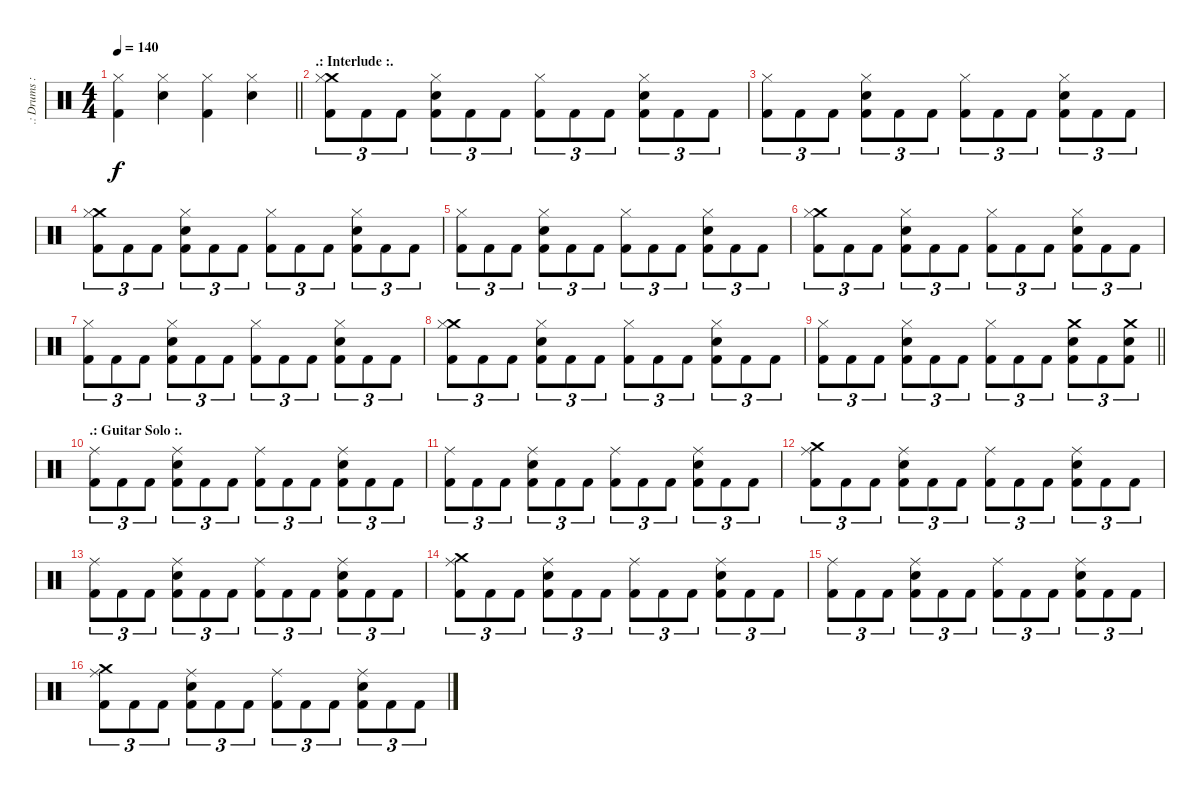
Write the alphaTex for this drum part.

\track (".: Drums :." ".: Drums :") {instrument percussion}
\staff {score}
\articulation defaults
\ts (4 4)
\tempo 140
\clef neutral
\barLineRight lightlight
\ks c
("Hi-Hat (closed)" "Kick (hit) 2").4{dy f} ("Hi-Hat (closed)" "Snare (hit) 2").4 ("Hi-Hat (closed)" "Kick (hit) 2").4 ("Hi-Hat (closed)" "Snare (hit) 2").4 |
\section ("" ".: Interlude :.")
("Crash medium (hit)" "Hi-Hat (closed)" "Kick (hit) 2").8{tu (3 2)} "Kick (hit) 2".8{tu (3 2)} "Kick (hit) 2".8{tu (3 2)} ("Hi-Hat (closed)" "Snare (hit) 2" "Kick (hit) 2").8{tu (3 2)} "Kick (hit) 2".8{tu (3 2)} "Kick (hit) 2".8{tu (3 2)} ("Hi-Hat (closed)" "Kick (hit) 2").8{tu (3 2)} "Kick (hit) 2".8{tu (3 2)} "Kick (hit) 2".8{tu (3 2)} ("Hi-Hat (closed)" "Snare (hit) 2" "Kick (hit) 2").8{tu (3 2)} "Kick (hit) 2".8{tu (3 2)} "Kick (hit) 2".8{tu (3 2)} |
("Hi-Hat (closed)" "Kick (hit) 2").8{tu (3 2)} "Kick (hit) 2".8{tu (3 2)} "Kick (hit) 2".8{tu (3 2)} ("Hi-Hat (closed)" "Snare (hit) 2" "Kick (hit) 2").8{tu (3 2)} "Kick (hit) 2".8{tu (3 2)} "Kick (hit) 2".8{tu (3 2)} ("Hi-Hat (closed)" "Kick (hit) 2").8{tu (3 2)} "Kick (hit) 2".8{tu (3 2)} "Kick (hit) 2".8{tu (3 2)} ("Hi-Hat (closed)" "Snare (hit) 2" "Kick (hit) 2").8{tu (3 2)} "Kick (hit) 2".8{tu (3 2)} "Kick (hit) 2".8{tu (3 2)} |
("Crash medium (hit)" "Hi-Hat (closed)" "Kick (hit) 2").8{tu (3 2)} "Kick (hit) 2".8{tu (3 2)} "Kick (hit) 2".8{tu (3 2)} ("Hi-Hat (closed)" "Snare (hit) 2" "Kick (hit) 2").8{tu (3 2)} "Kick (hit) 2".8{tu (3 2)} "Kick (hit) 2".8{tu (3 2)} ("Hi-Hat (closed)" "Kick (hit) 2").8{tu (3 2)} "Kick (hit) 2".8{tu (3 2)} "Kick (hit) 2".8{tu (3 2)} ("Hi-Hat (closed)" "Snare (hit) 2" "Kick (hit) 2").8{tu (3 2)} "Kick (hit) 2".8{tu (3 2)} "Kick (hit) 2".8{tu (3 2)} |
("Hi-Hat (closed)" "Kick (hit) 2").8{tu (3 2)} "Kick (hit) 2".8{tu (3 2)} "Kick (hit) 2".8{tu (3 2)} ("Hi-Hat (closed)" "Snare (hit) 2" "Kick (hit) 2").8{tu (3 2)} "Kick (hit) 2".8{tu (3 2)} "Kick (hit) 2".8{tu (3 2)} ("Hi-Hat (closed)" "Kick (hit) 2").8{tu (3 2)} "Kick (hit) 2".8{tu (3 2)} "Kick (hit) 2".8{tu (3 2)} ("Hi-Hat (closed)" "Snare (hit) 2" "Kick (hit) 2").8{tu (3 2)} "Kick (hit) 2".8{tu (3 2)} "Kick (hit) 2".8{tu (3 2)} |
("Crash medium (hit)" "Hi-Hat (closed)" "Kick (hit) 2").8{tu (3 2)} "Kick (hit) 2".8{tu (3 2)} "Kick (hit) 2".8{tu (3 2)} ("Hi-Hat (closed)" "Snare (hit) 2" "Kick (hit) 2").8{tu (3 2)} "Kick (hit) 2".8{tu (3 2)} "Kick (hit) 2".8{tu (3 2)} ("Hi-Hat (closed)" "Kick (hit) 2").8{tu (3 2)} "Kick (hit) 2".8{tu (3 2)} "Kick (hit) 2".8{tu (3 2)} ("Hi-Hat (closed)" "Snare (hit) 2" "Kick (hit) 2").8{tu (3 2)} "Kick (hit) 2".8{tu (3 2)} "Kick (hit) 2".8{tu (3 2)} |
("Hi-Hat (closed)" "Kick (hit) 2").8{tu (3 2)} "Kick (hit) 2".8{tu (3 2)} "Kick (hit) 2".8{tu (3 2)} ("Hi-Hat (closed)" "Snare (hit) 2" "Kick (hit) 2").8{tu (3 2)} "Kick (hit) 2".8{tu (3 2)} "Kick (hit) 2".8{tu (3 2)} ("Hi-Hat (closed)" "Kick (hit) 2").8{tu (3 2)} "Kick (hit) 2".8{tu (3 2)} "Kick (hit) 2".8{tu (3 2)} ("Hi-Hat (closed)" "Snare (hit) 2" "Kick (hit) 2").8{tu (3 2)} "Kick (hit) 2".8{tu (3 2)} "Kick (hit) 2".8{tu (3 2)} |
("Crash medium (hit)" "Hi-Hat (closed)" "Kick (hit) 2").8{tu (3 2)} "Kick (hit) 2".8{tu (3 2)} "Kick (hit) 2".8{tu (3 2)} ("Hi-Hat (closed)" "Snare (hit) 2" "Kick (hit) 2").8{tu (3 2)} "Kick (hit) 2".8{tu (3 2)} "Kick (hit) 2".8{tu (3 2)} ("Hi-Hat (closed)" "Kick (hit) 2").8{tu (3 2)} "Kick (hit) 2".8{tu (3 2)} "Kick (hit) 2".8{tu (3 2)} ("Hi-Hat (closed)" "Snare (hit) 2" "Kick (hit) 2").8{tu (3 2)} "Kick (hit) 2".8{tu (3 2)} "Kick (hit) 2".8{tu (3 2)} |
\barLineRight lightlight
("Hi-Hat (closed)" "Kick (hit) 2").8{tu (3 2)} "Kick (hit) 2".8{tu (3 2)} "Kick (hit) 2".8{tu (3 2)} ("Hi-Hat (closed)" "Snare (hit) 2" "Kick (hit) 2").8{tu (3 2)} "Kick (hit) 2".8{tu (3 2)} "Kick (hit) 2".8{tu (3 2)} ("Hi-Hat (closed)" "Kick (hit) 2").8{tu (3 2)} "Kick (hit) 2".8{tu (3 2)} "Kick (hit) 2".8{tu (3 2)} ("Crash medium (hit)" "Snare (hit) 2" "Kick (hit) 2").8{tu (3 2)} "Kick (hit) 2".8{tu (3 2)} ("Crash medium (hit)" "Snare (hit) 2" "Kick (hit) 2").8{tu (3 2)} |
\section ("" ".: Guitar Solo :.")
("Ride (middle)" "Kick (hit) 2").8{tu (3 2)} "Kick (hit) 2".8{tu (3 2)} "Kick (hit) 2".8{tu (3 2)} ("Ride (middle)" "Snare (hit) 2" "Kick (hit) 2").8{tu (3 2)} "Kick (hit) 2".8{tu (3 2)} "Kick (hit) 2".8{tu (3 2)} ("Ride (middle)" "Kick (hit) 2").8{tu (3 2)} "Kick (hit) 2".8{tu (3 2)} "Kick (hit) 2".8{tu (3 2)} ("Ride (middle)" "Snare (hit) 2" "Kick (hit) 2").8{tu (3 2)} "Kick (hit) 2".8{tu (3 2)} "Kick (hit) 2".8{tu (3 2)} |
("Ride (middle)" "Kick (hit) 2").8{tu (3 2)} "Kick (hit) 2".8{tu (3 2)} "Kick (hit) 2".8{tu (3 2)} ("Ride (middle)" "Snare (hit) 2" "Kick (hit) 2").8{tu (3 2)} "Kick (hit) 2".8{tu (3 2)} "Kick (hit) 2".8{tu (3 2)} ("Ride (middle)" "Kick (hit) 2").8{tu (3 2)} "Kick (hit) 2".8{tu (3 2)} "Kick (hit) 2".8{tu (3 2)} ("Ride (middle)" "Snare (hit) 2" "Kick (hit) 2").8{tu (3 2)} "Kick (hit) 2".8{tu (3 2)} "Kick (hit) 2".8{tu (3 2)} |
("Crash medium (hit)" "Ride (middle)" "Kick (hit) 2").8{tu (3 2)} "Kick (hit) 2".8{tu (3 2)} "Kick (hit) 2".8{tu (3 2)} ("Ride (middle)" "Snare (hit) 2" "Kick (hit) 2").8{tu (3 2)} "Kick (hit) 2".8{tu (3 2)} "Kick (hit) 2".8{tu (3 2)} ("Ride (middle)" "Kick (hit) 2").8{tu (3 2)} "Kick (hit) 2".8{tu (3 2)} "Kick (hit) 2".8{tu (3 2)} ("Ride (middle)" "Snare (hit) 2" "Kick (hit) 2").8{tu (3 2)} "Kick (hit) 2".8{tu (3 2)} "Kick (hit) 2".8{tu (3 2)} |
("Ride (middle)" "Kick (hit) 2").8{tu (3 2)} "Kick (hit) 2".8{tu (3 2)} "Kick (hit) 2".8{tu (3 2)} ("Ride (middle)" "Snare (hit) 2" "Kick (hit) 2").8{tu (3 2)} "Kick (hit) 2".8{tu (3 2)} "Kick (hit) 2".8{tu (3 2)} ("Ride (middle)" "Kick (hit) 2").8{tu (3 2)} "Kick (hit) 2".8{tu (3 2)} "Kick (hit) 2".8{tu (3 2)} ("Ride (middle)" "Snare (hit) 2" "Kick (hit) 2").8{tu (3 2)} "Kick (hit) 2".8{tu (3 2)} "Kick (hit) 2".8{tu (3 2)} |
("Crash medium (hit)" "Ride (middle)" "Kick (hit) 2").8{tu (3 2)} "Kick (hit) 2".8{tu (3 2)} "Kick (hit) 2".8{tu (3 2)} ("Ride (middle)" "Snare (hit) 2" "Kick (hit) 2").8{tu (3 2)} "Kick (hit) 2".8{tu (3 2)} "Kick (hit) 2".8{tu (3 2)} ("Ride (middle)" "Kick (hit) 2").8{tu (3 2)} "Kick (hit) 2".8{tu (3 2)} "Kick (hit) 2".8{tu (3 2)} ("Ride (middle)" "Snare (hit) 2" "Kick (hit) 2").8{tu (3 2)} "Kick (hit) 2".8{tu (3 2)} "Kick (hit) 2".8{tu (3 2)} |
("Ride (middle)" "Kick (hit) 2").8{tu (3 2)} "Kick (hit) 2".8{tu (3 2)} "Kick (hit) 2".8{tu (3 2)} ("Ride (middle)" "Snare (hit) 2" "Kick (hit) 2").8{tu (3 2)} "Kick (hit) 2".8{tu (3 2)} "Kick (hit) 2".8{tu (3 2)} ("Ride (middle)" "Kick (hit) 2").8{tu (3 2)} "Kick (hit) 2".8{tu (3 2)} "Kick (hit) 2".8{tu (3 2)} ("Ride (middle)" "Snare (hit) 2" "Kick (hit) 2").8{tu (3 2)} "Kick (hit) 2".8{tu (3 2)} "Kick (hit) 2".8{tu (3 2)} |
("Crash medium (hit)" "Ride (middle)" "Kick (hit) 2").8{tu (3 2)} "Kick (hit) 2".8{tu (3 2)} "Kick (hit) 2".8{tu (3 2)} ("Ride (middle)" "Snare (hit) 2" "Kick (hit) 2").8{tu (3 2)} "Kick (hit) 2".8{tu (3 2)} "Kick (hit) 2".8{tu (3 2)} ("Ride (middle)" "Kick (hit) 2").8{tu (3 2)} "Kick (hit) 2".8{tu (3 2)} "Kick (hit) 2".8{tu (3 2)} ("Ride (middle)" "Snare (hit) 2" "Kick (hit) 2").8{tu (3 2)} "Kick (hit) 2".8{tu (3 2)} "Kick (hit) 2".8{tu (3 2)}
